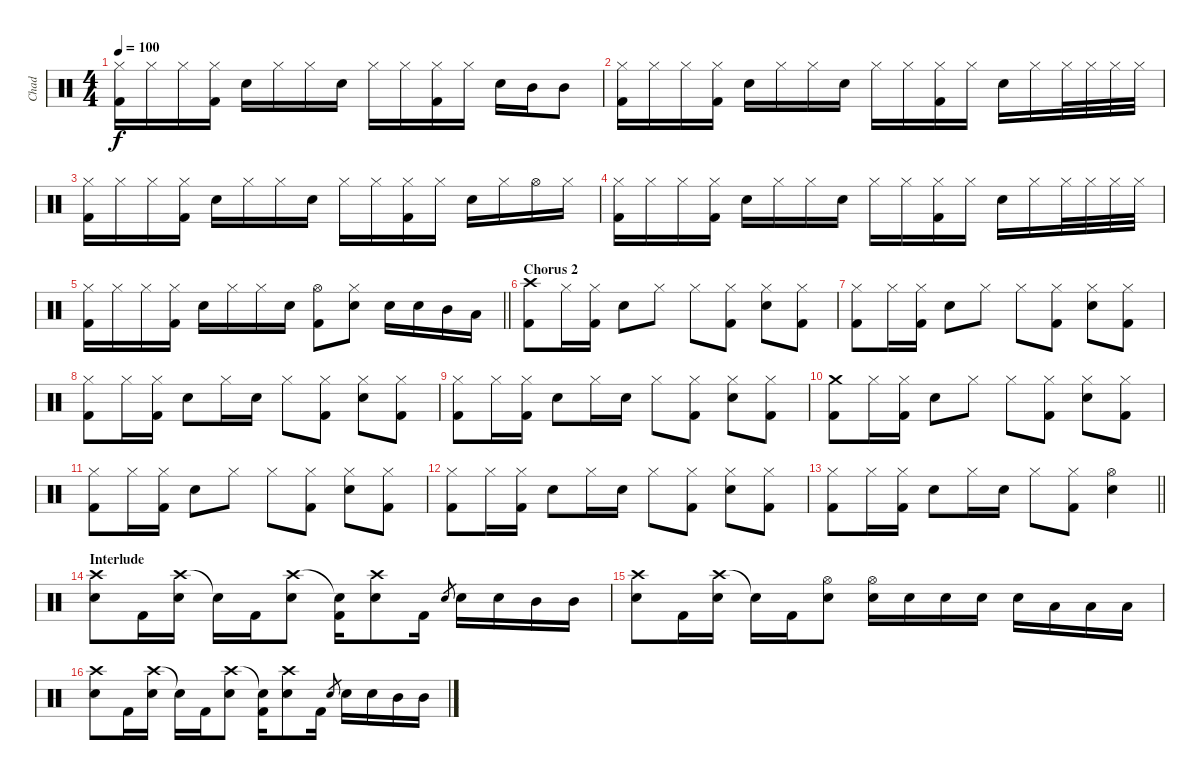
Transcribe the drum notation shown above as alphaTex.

\track ("Chad" "Chad") {instrument percussion}
\staff {score}
\articulation defaults
\ts (4 4)
\tempo 100
\clef neutral
\ks c
("Hi-Hat (closed)" "Kick (hit) 2").16{dy f} "Hi-Hat (closed)".16 "Hi-Hat (closed)".16 ("Hi-Hat (closed)" "Kick (hit) 2").16 "Electric Snare (hit)".16 "Hi-Hat (closed)".16 "Hi-Hat (closed)".16 "Electric Snare (hit)".16 "Hi-Hat (closed)".16 "Hi-Hat (closed)".16 ("Hi-Hat (closed)" "Kick (hit) 2").16 "Hi-Hat (closed)".16 "Electric Snare (hit)".16 "Mid Tom (hit)".16 "Mid Tom (hit)".8 |
("Hi-Hat (closed)" "Kick (hit) 2").16 "Hi-Hat (closed)".16 "Hi-Hat (closed)".16 ("Hi-Hat (closed)" "Kick (hit) 2").16 "Electric Snare (hit)".16 "Hi-Hat (closed)".16 "Hi-Hat (closed)".16 "Electric Snare (hit)".16 "Hi-Hat (closed)".16 "Hi-Hat (closed)".16 ("Hi-Hat (closed)" "Kick (hit) 2").16 "Hi-Hat (closed)".16 "Electric Snare (hit)".16 "Hi-Hat (closed)".16 "Hi-Hat (closed)".32 "Hi-Hat (closed)".32 "Hi-Hat (closed)".32 "Hi-Hat (closed)".32 |
("Hi-Hat (closed)" "Kick (hit) 2").16 "Hi-Hat (closed)".16 "Hi-Hat (closed)".16 ("Hi-Hat (closed)" "Kick (hit) 2").16 "Electric Snare (hit)".16 "Hi-Hat (closed)".16 "Hi-Hat (closed)".16 "Electric Snare (hit)".16 "Hi-Hat (closed)".16 "Hi-Hat (closed)".16 ("Hi-Hat (closed)" "Kick (hit) 2").16 "Hi-Hat (closed)".16 "Electric Snare (hit)".16 "Hi-Hat (closed)".16 "Hi-Hat (open)".16 "Hi-Hat (closed)".16 |
("Hi-Hat (closed)" "Kick (hit) 2").16 "Hi-Hat (closed)".16 "Hi-Hat (closed)".16 ("Hi-Hat (closed)" "Kick (hit) 2").16 "Electric Snare (hit)".16 "Hi-Hat (closed)".16 "Hi-Hat (closed)".16 "Electric Snare (hit)".16 "Hi-Hat (closed)".16 "Hi-Hat (closed)".16 ("Hi-Hat (closed)" "Kick (hit) 2").16 "Hi-Hat (closed)".16 "Electric Snare (hit)".16 "Hi-Hat (closed)".16 "Hi-Hat (closed)".32 "Hi-Hat (closed)".32 "Hi-Hat (closed)".32 "Hi-Hat (closed)".32 |
\barLineRight lightlight
("Hi-Hat (closed)" "Kick (hit) 2").16 "Hi-Hat (closed)".16 "Hi-Hat (closed)".16 ("Hi-Hat (closed)" "Kick (hit) 2").16 "Electric Snare (hit)".16 "Hi-Hat (closed)".16 "Hi-Hat (closed)".16 "Electric Snare (hit)".16 ("Hi-Hat (open)" "Kick (hit) 2").8 ("Hi-Hat (closed)" "Electric Snare (hit)").8 "Electric Snare (hit)".16 "Electric Snare (hit)".16 "Mid Tom (hit)".16 "Low Tom (hit)".16 |
\section ("" "Chorus 2")
("Crash high (hit)" "Kick (hit) 2").8 "Hi-Hat (closed)".16 ("Hi-Hat (closed)" "Kick (hit) 2").16 "Electric Snare (hit)".8 "Hi-Hat (closed)".8 "Hi-Hat (closed)".8 ("Hi-Hat (closed)" "Kick (hit) 2").8 ("Hi-Hat (closed)" "Electric Snare (hit)").8 ("Hi-Hat (closed)" "Kick (hit) 2").8 |
("Hi-Hat (closed)" "Kick (hit) 2").8 "Hi-Hat (closed)".16 ("Hi-Hat (closed)" "Kick (hit) 2").16 "Electric Snare (hit)".8 "Hi-Hat (closed)".8 "Hi-Hat (closed)".8 ("Hi-Hat (closed)" "Kick (hit) 2").8 ("Hi-Hat (closed)" "Electric Snare (hit)").8 ("Hi-Hat (closed)" "Kick (hit) 2").8 |
("Hi-Hat (closed)" "Kick (hit) 2").8 "Hi-Hat (closed)".16 ("Hi-Hat (closed)" "Kick (hit) 2").16 "Electric Snare (hit)".8 "Hi-Hat (closed)".16 "Electric Snare (hit)".16 "Hi-Hat (closed)".8 ("Hi-Hat (closed)" "Kick (hit) 2").8 ("Hi-Hat (closed)" "Electric Snare (hit)").8 ("Hi-Hat (closed)" "Kick (hit) 2").8 |
("Hi-Hat (closed)" "Kick (hit) 2").8 "Hi-Hat (closed)".16 ("Hi-Hat (closed)" "Kick (hit) 2").16 "Electric Snare (hit)".8 "Hi-Hat (closed)".16 "Electric Snare (hit)".16 "Hi-Hat (closed)".8 ("Hi-Hat (closed)" "Kick (hit) 2").8 ("Hi-Hat (closed)" "Electric Snare (hit)").8 ("Hi-Hat (closed)" "Kick (hit) 2").8 |
("Crash medium (hit)" "Kick (hit) 2").8 "Hi-Hat (closed)".16 ("Hi-Hat (closed)" "Kick (hit) 2").16 "Electric Snare (hit)".8 "Hi-Hat (closed)".8 "Hi-Hat (closed)".8 ("Hi-Hat (closed)" "Kick (hit) 2").8 ("Hi-Hat (closed)" "Electric Snare (hit)").8 ("Hi-Hat (closed)" "Kick (hit) 2").8 |
("Hi-Hat (closed)" "Kick (hit) 2").8 "Hi-Hat (closed)".16 ("Hi-Hat (closed)" "Kick (hit) 2").16 "Electric Snare (hit)".8 "Hi-Hat (closed)".8 "Hi-Hat (closed)".8 ("Hi-Hat (closed)" "Kick (hit) 2").8 ("Hi-Hat (closed)" "Electric Snare (hit)").8 ("Hi-Hat (closed)" "Kick (hit) 2").8 |
("Hi-Hat (closed)" "Kick (hit) 2").8 "Hi-Hat (closed)".16 ("Hi-Hat (closed)" "Kick (hit) 2").16 "Electric Snare (hit)".8 "Hi-Hat (closed)".16 "Electric Snare (hit)".16 "Hi-Hat (closed)".8 ("Hi-Hat (closed)" "Kick (hit) 2").8 ("Hi-Hat (closed)" "Electric Snare (hit)").8 ("Hi-Hat (closed)" "Kick (hit) 2").8 |
\barLineRight lightlight
("Hi-Hat (closed)" "Kick (hit) 2").8 "Hi-Hat (closed)".16 ("Hi-Hat (closed)" "Kick (hit) 2").16 "Electric Snare (hit)".8 "Hi-Hat (closed)".16 "Electric Snare (hit)".16 "Hi-Hat (closed)".8 ("Hi-Hat (closed)" "Kick (hit) 2").8 ("Hi-Hat (open)" "Electric Snare (hit)").4 |
\section ("" "Interlude")
("Crash high (hit)" "Electric Snare (hit)").8 "Kick (hit) 2".16 ("Crash high (hit)" "Electric Snare (hit)").16 "Snare (hit)"{t}.16 "Kick (hit) 2".16 ("Crash high (hit)" "Electric Snare (hit)").8 ("Snare (hit)"{t} "Kick (hit) 2").16 ("Crash high (hit)" "Electric Snare (hit)").8 "Kick (hit) 2".16 "Electric Snare (hit)".8{gr} "Electric Snare (hit)".16 "Electric Snare (hit)".16 "Mid Tom (hit)".16 "Mid Tom (hit)".16 |
("Crash high (hit)" "Electric Snare (hit)").8 "Kick (hit) 2".16 ("Crash high (hit)" "Electric Snare (hit)").16 "Snare (hit)"{t}.16 "Kick (hit) 2".16 ("Hi-Hat (open)" "Electric Snare (hit)").8 ("Hi-Hat (open)" "Electric Snare (hit)").16 "Electric Snare (hit)".16 "Electric Snare (hit)".16 "Electric Snare (hit)".16 "Electric Snare (hit)".16 "Low Tom (hit)".16 "Low Tom (hit)".16 "Low Tom (hit)".16 |
("Crash high (hit)" "Electric Snare (hit)").8 "Kick (hit) 2".16 ("Crash high (hit)" "Electric Snare (hit)").16 "Snare (hit)"{t}.16 "Kick (hit) 2".16 ("Crash high (hit)" "Electric Snare (hit)").8 ("Snare (hit)"{t} "Kick (hit) 2").16 ("Crash high (hit)" "Electric Snare (hit)").8 "Kick (hit) 2".16 "Electric Snare (hit)".8{gr} "Electric Snare (hit)".16 "Electric Snare (hit)".16 "Mid Tom (hit)".16 "Mid Tom (hit)".16
